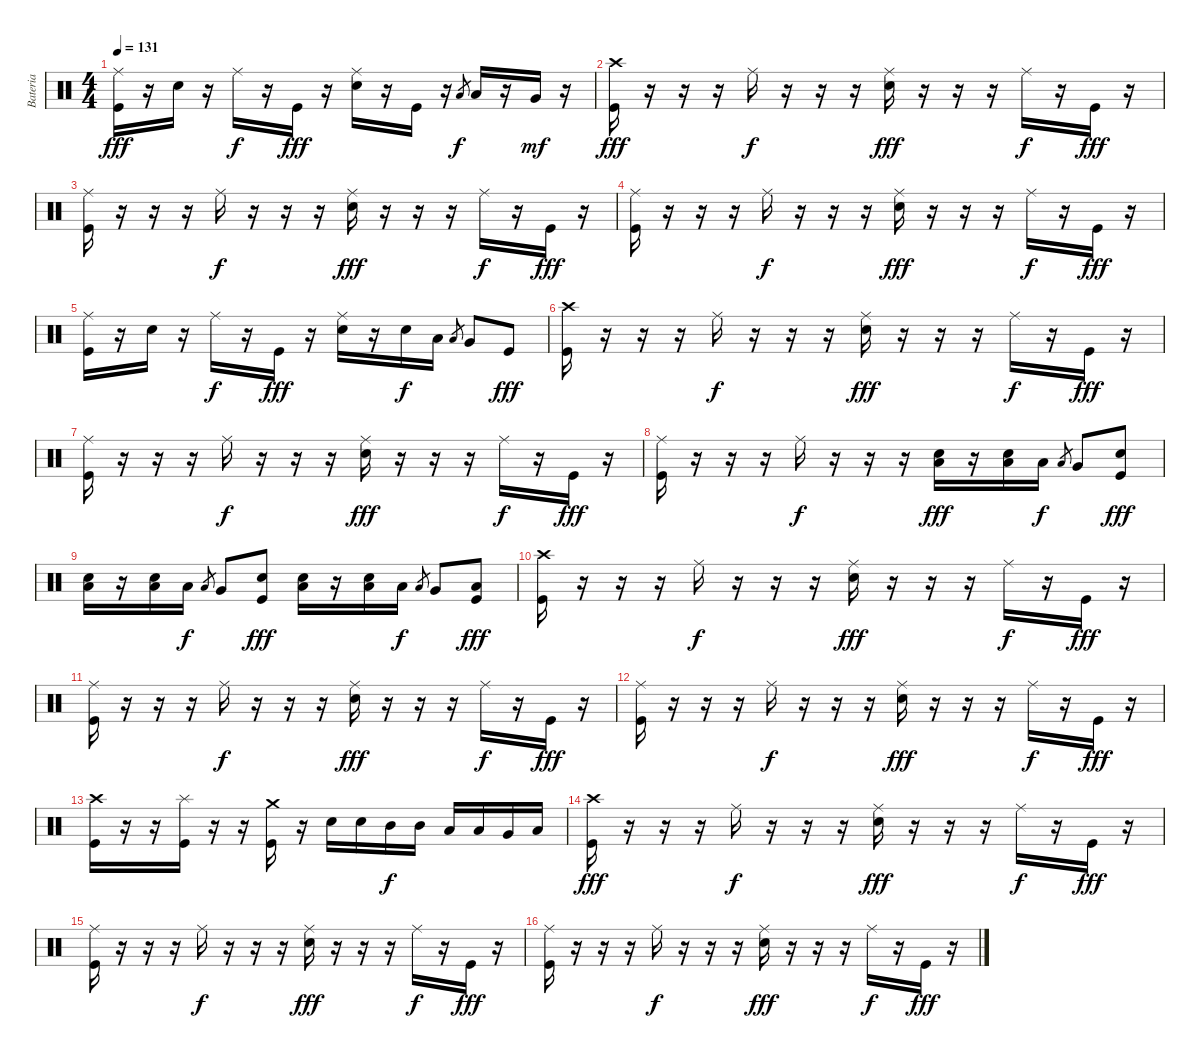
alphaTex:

\track ("Bateria" "Bateria") {instrument percussion}
\staff {score}
\articulation defaults
\ts (4 4)
\tempo 131
\clef neutral
\ks c
("Ride (middle)" "Kick (hit)").16{dy fff} r.16 "Electric Snare (hit)".16 r.16 "Ride (middle)".16{dy f} r.16 "Kick (hit)".16{dy fff} r.16 ("Ride (middle)" "Electric Snare (hit)").16 r.16 "Kick (hit)".16 r.16 "Low Tom (hit)".8{gr dy f} "Low Tom (hit)".16 r.16 "Very Low Tom (hit)".16{dy mf} r.16 |
("Crash high (hit)" "Kick (hit)").16{dy fff} r.16 r.16 r.16 "Ride (middle)".16{dy f} r.16 r.16 r.16 ("Ride (middle)" "Electric Snare (hit)").16{dy fff} r.16 r.16 r.16 "Ride (middle)".16{dy f} r.16 "Kick (hit)".16{dy fff} r.16 |
("Ride (middle)" "Kick (hit)").16 r.16 r.16 r.16 "Ride (middle)".16{dy f} r.16 r.16 r.16 ("Ride (middle)" "Electric Snare (hit)").16{dy fff} r.16 r.16 r.16 "Ride (middle)".16{dy f} r.16 "Kick (hit)".16{dy fff} r.16 |
("Ride (middle)" "Kick (hit)").16 r.16 r.16 r.16 "Ride (middle)".16{dy f} r.16 r.16 r.16 ("Ride (middle)" "Electric Snare (hit)").16{dy fff} r.16 r.16 r.16 "Ride (middle)".16{dy f} r.16 "Kick (hit)".16{dy fff} r.16 |
("Ride (middle)" "Kick (hit)").16 r.16 "Electric Snare (hit)".16 r.16 "Ride (middle)".16{dy f} r.16 "Kick (hit)".16{dy fff} r.16 ("Ride (middle)" "Electric Snare (hit)").16 r.16 "Electric Snare (hit)".16{dy f} "Low Tom (hit)".16 "Low Tom (hit)".8{gr} "Very Low Tom (hit)".8 "Kick (hit)".8{dy fff} |
("Crash high (hit)" "Kick (hit)").16 r.16 r.16 r.16 "Ride (middle)".16{dy f} r.16 r.16 r.16 ("Ride (middle)" "Electric Snare (hit)").16{dy fff} r.16 r.16 r.16 "Ride (middle)".16{dy f} r.16 "Kick (hit)".16{dy fff} r.16 |
("Ride (middle)" "Kick (hit)").16 r.16 r.16 r.16 "Ride (middle)".16{dy f} r.16 r.16 r.16 ("Ride (middle)" "Electric Snare (hit)").16{dy fff} r.16 r.16 r.16 "Ride (middle)".16{dy f} r.16 "Kick (hit)".16{dy fff} r.16 |
("Ride (middle)" "Kick (hit)").16 r.16 r.16 r.16 "Ride (middle)".16{dy f} r.16 r.16 r.16 ("Low Floor Tom (hit)" "Electric Snare (hit)").16{dy fff} r.16 ("Low Floor Tom (hit)" "Electric Snare (hit)").16 "Low Tom (hit)".16{dy f} "Low Tom (hit)".8{gr} "Very Low Tom (hit)".8 ("Electric Snare (hit)" "Kick (hit)").8{dy fff} |
("Low Floor Tom (hit)" "Electric Snare (hit)").16 r.16 ("Low Floor Tom (hit)" "Electric Snare (hit)").16 "Low Tom (hit)".16{dy f} "Low Tom (hit)".8{gr} "Very Low Tom (hit)".8 ("Electric Snare (hit)" "Kick (hit)").8{dy fff} ("Low Floor Tom (hit)" "Electric Snare (hit)").16 r.16 ("Low Floor Tom (hit)" "Electric Snare (hit)").16 "Low Tom (hit)".16{dy f} "Low Tom (hit)".8{gr} "Very Low Tom (hit)".8 ("Low Floor Tom (hit)" "Kick (hit)").8{dy fff} |
("Crash high (hit)" "Kick (hit)").16 r.16 r.16 r.16 "Ride (middle)".16{dy f} r.16 r.16 r.16 ("Ride (middle)" "Electric Snare (hit)").16{dy fff} r.16 r.16 r.16 "Ride (middle)".16{dy f} r.16 "Kick (hit)".16{dy fff} r.16 |
("Ride (middle)" "Kick (hit)").16 r.16 r.16 r.16 "Ride (middle)".16{dy f} r.16 r.16 r.16 ("Ride (middle)" "Electric Snare (hit)").16{dy fff} r.16 r.16 r.16 "Ride (middle)".16{dy f} r.16 "Kick (hit)".16{dy fff} r.16 |
("Ride (middle)" "Kick (hit)").16 r.16 r.16 r.16 "Ride (middle)".16{dy f} r.16 r.16 r.16 ("Ride (middle)" "Electric Snare (hit)").16{dy fff} r.16 r.16 r.16 "Ride (middle)".16{dy f} r.16 "Kick (hit)".16{dy fff} r.16 |
("Crash high (hit)" "Kick (hit)").16 r.16 r.16 ("Splash (hit)" "Kick (hit)").16 r.16 r.16 ("Crash medium (hit)" "Kick (hit)").16 r.16 "Electric Snare (hit)".16 "Electric Snare (hit)".16 "Mid Tom (hit)".16{dy f} "Mid Tom (hit)".16 "Low Tom (hit)".16 "Low Tom (hit)".16 "Very Low Tom (hit)".16 "Low Floor Tom (hit)".16 |
("Crash high (hit)" "Kick (hit)").16{dy fff} r.16 r.16 r.16 "Ride (middle)".16{dy f} r.16 r.16 r.16 ("Ride (middle)" "Electric Snare (hit)").16{dy fff} r.16 r.16 r.16 "Ride (middle)".16{dy f} r.16 "Kick (hit)".16{dy fff} r.16 |
("Ride (middle)" "Kick (hit)").16 r.16 r.16 r.16 "Ride (middle)".16{dy f} r.16 r.16 r.16 ("Ride (middle)" "Electric Snare (hit)").16{dy fff} r.16 r.16 r.16 "Ride (middle)".16{dy f} r.16 "Kick (hit)".16{dy fff} r.16 |
("Ride (middle)" "Kick (hit)").16 r.16 r.16 r.16 "Ride (middle)".16{dy f} r.16 r.16 r.16 ("Ride (middle)" "Electric Snare (hit)").16{dy fff} r.16 r.16 r.16 "Ride (middle)".16{dy f} r.16 "Kick (hit)".16{dy fff} r.16
